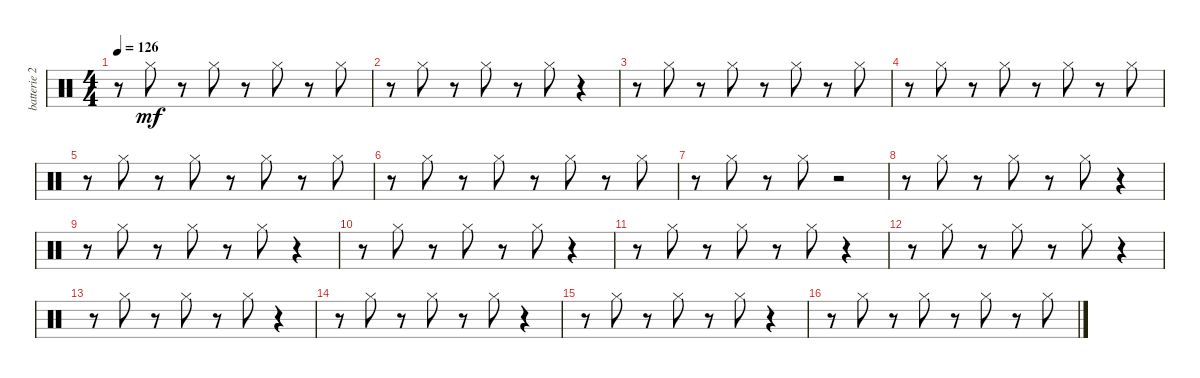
\track ("batterie 2" "batterie 2") {instrument percussion}
\staff {score}
\articulation defaults
\ts (4 4)
\tempo 126
\clef neutral
\ks c
r.8{dy mf} "Hi-Hat (closed)".8 r.8 "Hi-Hat (closed)".8 r.8 "Hi-Hat (closed)".8 r.8 "Hi-Hat (closed)".8 |
r.8 "Hi-Hat (closed)".8 r.8 "Hi-Hat (closed)".8 r.8 "Hi-Hat (closed)".8 r.4 |
r.8 "Hi-Hat (closed)".8 r.8 "Hi-Hat (closed)".8 r.8 "Hi-Hat (closed)".8 r.8 "Hi-Hat (closed)".8 |
r.8 "Hi-Hat (closed)".8 r.8 "Hi-Hat (closed)".8 r.8 "Hi-Hat (closed)".8 r.8 "Hi-Hat (closed)".8 |
r.8 "Hi-Hat (closed)".8 r.8 "Hi-Hat (closed)".8 r.8 "Hi-Hat (closed)".8 r.8 "Hi-Hat (closed)".8 |
r.8 "Hi-Hat (closed)".8 r.8 "Hi-Hat (closed)".8 r.8 "Hi-Hat (closed)".8 r.8 "Hi-Hat (closed)".8 |
r.8 "Hi-Hat (closed)".8 r.8 "Hi-Hat (closed)".8 r.2 |
r.8 "Hi-Hat (closed)".8 r.8 "Hi-Hat (closed)".8 r.8 "Hi-Hat (closed)".8 r.4 |
r.8 "Hi-Hat (closed)".8 r.8 "Hi-Hat (closed)".8 r.8 "Hi-Hat (closed)".8 r.4 |
r.8 "Hi-Hat (closed)".8 r.8 "Hi-Hat (closed)".8 r.8 "Hi-Hat (closed)".8 r.4 |
r.8 "Hi-Hat (closed)".8 r.8 "Hi-Hat (closed)".8 r.8 "Hi-Hat (closed)".8 r.4 |
r.8 "Hi-Hat (closed)".8 r.8 "Hi-Hat (closed)".8 r.8 "Hi-Hat (closed)".8 r.4 |
r.8 "Hi-Hat (closed)".8 r.8 "Hi-Hat (closed)".8 r.8 "Hi-Hat (closed)".8 r.4 |
r.8 "Hi-Hat (closed)".8 r.8 "Hi-Hat (closed)".8 r.8 "Hi-Hat (closed)".8 r.4 |
r.8 "Hi-Hat (closed)".8 r.8 "Hi-Hat (closed)".8 r.8 "Hi-Hat (closed)".8 r.4 |
r.8 "Hi-Hat (closed)".8 r.8 "Hi-Hat (closed)".8 r.8 "Hi-Hat (closed)".8 r.8 "Hi-Hat (closed)".8
